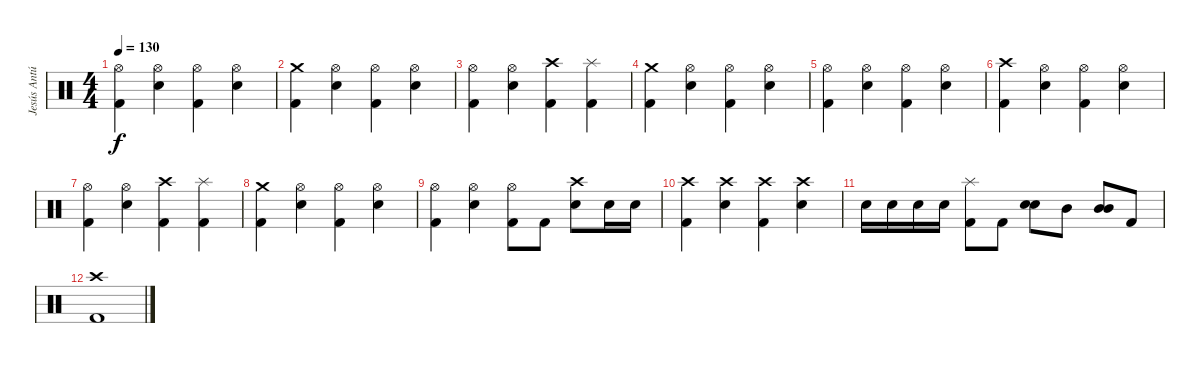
\track ("Jesús Antúnez (Bateria)" "Jesús Antú") {instrument percussion}
\staff {score}
\articulation defaults
\ts (4 4)
\tempo 130
\clef neutral
\ks c
("Kick (hit) 2" "Hi-Hat (open)").4{dy f} ("Snare (hit) 2" "Hi-Hat (open)").4 ("Kick (hit) 2" "Hi-Hat (open)").4 ("Snare (hit) 2" "Hi-Hat (open)").4 |
("Kick (hit) 2" "Crash medium (hit)").4 ("Snare (hit) 2" "Hi-Hat (open)").4 ("Kick (hit) 2" "Hi-Hat (open)").4 ("Snare (hit) 2" "Hi-Hat (open)").4 |
("Kick (hit) 2" "Hi-Hat (open)").4 ("Snare (hit) 2" "Hi-Hat (open)").4 ("Kick (hit) 2" "Crash high (hit)").4 ("Kick (hit) 2" "Splash (hit)").4 |
("Kick (hit) 2" "Crash medium (hit)").4 ("Snare (hit) 2" "Hi-Hat (open)").4 ("Kick (hit) 2" "Hi-Hat (open)").4 ("Snare (hit) 2" "Hi-Hat (open)").4 |
("Kick (hit) 2" "Hi-Hat (open)").4 ("Snare (hit) 2" "Hi-Hat (open)").4 ("Kick (hit) 2" "Hi-Hat (open)").4 ("Snare (hit) 2" "Hi-Hat (open)").4 |
("Kick (hit) 2" "Crash high (hit)").4 ("Snare (hit) 2" "Hi-Hat (open)").4 ("Kick (hit) 2" "Hi-Hat (open)").4 ("Snare (hit) 2" "Hi-Hat (open)").4 |
("Kick (hit) 2" "Hi-Hat (open)").4 ("Snare (hit) 2" "Hi-Hat (open)").4 ("Kick (hit) 2" "Crash high (hit)").4 ("Kick (hit) 2" "Splash (hit)").4 |
("Kick (hit) 2" "Crash medium (hit)").4 ("Snare (hit) 2" "Hi-Hat (open)").4 ("Kick (hit) 2" "Hi-Hat (open)").4 ("Snare (hit) 2" "Hi-Hat (open)").4 |
("Kick (hit) 2" "Hi-Hat (open)").4 ("Snare (hit) 2" "Hi-Hat (open)").4 ("Kick (hit) 2" "Hi-Hat (open)").8 "Kick (hit) 2".8 ("Snare (hit) 2" "Crash high (hit)").8 "Snare (hit) 2".16 "Snare (hit) 2".16 |
("Kick (hit) 2" "Crash high (hit)").4 ("Snare (hit) 2" "Crash high (hit)").4 ("Kick (hit) 2" "Crash high (hit)").4 ("Snare (hit) 2" "Crash high (hit)").4 |
"Snare (hit) 2".16 "Snare (hit) 2".16 "Snare (hit) 2".16 "Snare (hit) 2".16 ("Kick (hit) 2" "Splash (hit)").8 "Kick (hit) 2".8 ("Snare (hit) 2" "Snare (hit) 2").8 "Mid Tom (hit)".8 ("Mid Tom (hit)" "Mid Tom (hit)").8 "Kick (hit) 2".8 |
("Kick (hit) 2" "Crash high (hit)").1
